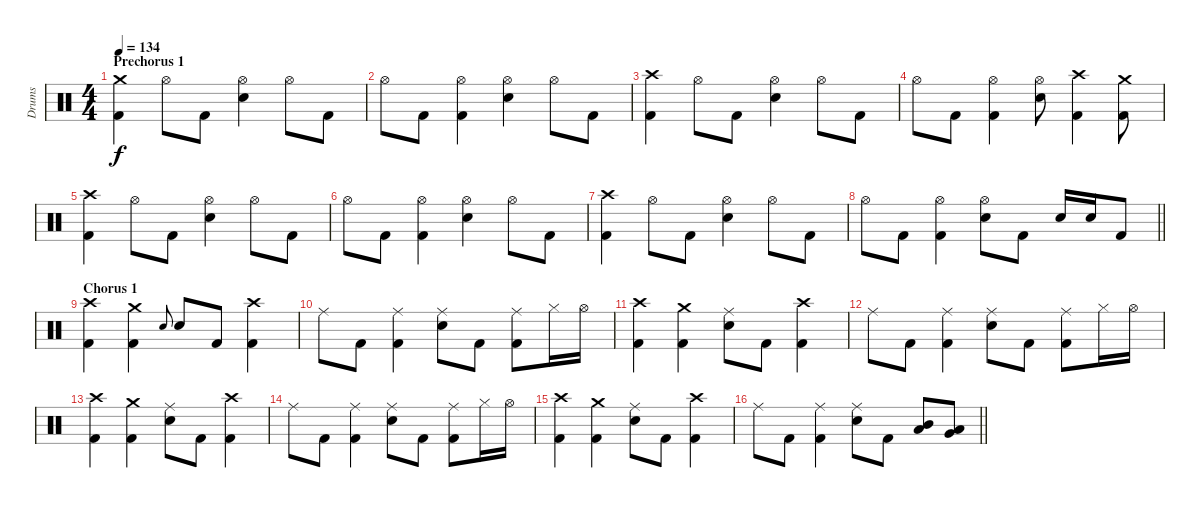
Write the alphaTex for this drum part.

\track ("Drums" "Drums") {instrument percussion}
\staff {score}
\articulation defaults
\ts (4 4)
\section ("" "Prechorus 1")
\tempo 134
\clef neutral
\ks c
("Crash medium (hit)" "Kick (hit) 2").4{dy f} "Hi-Hat (open)".8 "Kick (hit) 2".8 ("Hi-Hat (open)" "Snare (hit) 2").4 "Hi-Hat (open)".8 "Kick (hit) 2".8 |
"Hi-Hat (open)".8 "Kick (hit) 2".8 ("Hi-Hat (open)" "Kick (hit) 2").4 ("Hi-Hat (open)" "Snare (hit) 2").4 "Hi-Hat (open)".8 "Kick (hit) 2".8 |
("Crash high (hit)" "Kick (hit) 2").4 "Hi-Hat (open)".8 "Kick (hit) 2".8 ("Hi-Hat (open)" "Snare (hit) 2").4 "Hi-Hat (open)".8 "Kick (hit) 2".8 |
"Hi-Hat (open)".8 "Kick (hit) 2".8 ("Hi-Hat (open)" "Kick (hit) 2").4 ("Hi-Hat (open)" "Snare (hit) 2").8 ("Crash high (hit)" "Kick (hit) 2").4 ("Crash medium (hit)" "Kick (hit) 2").8 |
("Crash high (hit)" "Kick (hit) 2").4 "Hi-Hat (open)".8 "Kick (hit) 2".8 ("Hi-Hat (open)" "Snare (hit) 2").4 "Hi-Hat (open)".8 "Kick (hit) 2".8 |
"Hi-Hat (open)".8 "Kick (hit) 2".8 ("Hi-Hat (open)" "Kick (hit) 2").4 ("Hi-Hat (open)" "Snare (hit) 2").4 "Hi-Hat (open)".8 "Kick (hit) 2".8 |
("Crash high (hit)" "Kick (hit) 2").4 "Hi-Hat (open)".8 "Kick (hit) 2".8 ("Hi-Hat (open)" "Snare (hit) 2").4 "Hi-Hat (open)".8 "Kick (hit) 2".8 |
\barLineRight lightlight "Hi-Hat (open)".8 "Kick (hit) 2".8
("Hi-Hat (open)" "Kick (hit) 2").4 ("Hi-Hat (open)" "Snare (hit) 2").8 "Kick (hit) 2".8 "Snare (hit) 2".16 "Snare (hit) 2".16 "Kick (hit) 2".8 |
\section ("" "Chorus 1")
("Crash high (hit)" "Kick (hit) 2").4 ("Crash medium (hit)" "Kick (hit) 2").4 "Snare (hit) 2".8{gr onbeat} "Snare (hit) 2".8 "Kick (hit) 2".8 ("Crash high (hit)" "Kick (hit) 2").4 |
"Ride (middle)".8 "Kick (hit) 2".8 ("Ride (middle)" "Kick (hit) 2").4 ("Ride (middle)" "Snare (hit) 2").8 "Kick (hit) 2".8 ("Ride (middle)" "Kick (hit) 2").8 "Hi-Hat (closed)".16 "Hi-Hat (open)".16 |
("Crash high (hit)" "Kick (hit) 2").4 ("Crash medium (hit)" "Kick (hit) 2").4 ("Ride (middle)" "Snare (hit) 2").8 "Kick (hit) 2".8 ("Crash high (hit)" "Kick (hit) 2").4 |
"Ride (middle)".8 "Kick (hit) 2".8 ("Ride (middle)" "Kick (hit) 2").4 ("Ride (middle)" "Snare (hit) 2").8 "Kick (hit) 2".8 ("Ride (middle)" "Kick (hit) 2").8 "Hi-Hat (closed)".16 "Hi-Hat (open)".16 |
("Crash high (hit)" "Kick (hit) 2").4 ("Crash medium (hit)" "Kick (hit) 2").4 ("Ride (middle)" "Snare (hit) 2").8 "Kick (hit) 2".8 ("Crash high (hit)" "Kick (hit) 2").4 |
"Ride (middle)".8 "Kick (hit) 2".8 ("Ride (middle)" "Kick (hit) 2").4 ("Ride (middle)" "Snare (hit) 2").8 "Kick (hit) 2".8 ("Ride (middle)" "Kick (hit) 2").8 "Hi-Hat (closed)".16 "Hi-Hat (open)".16 |
("Crash high (hit)" "Kick (hit) 2").4 ("Crash medium (hit)" "Kick (hit) 2").4 ("Ride (middle)" "Snare (hit) 2").8 "Kick (hit) 2".8 ("Crash high (hit)" "Kick (hit) 2").4 |
\barLineRight lightlight "Ride (middle)".8 "Kick (hit) 2".8
("Ride (middle)" "Kick (hit) 2").4 ("Ride (middle)" "Snare (hit) 2").8 "Kick (hit) 2".8 ("Mid Tom (hit)" "Low Tom (hit)").8 ("Low Tom (hit)" "Very Low Tom (hit)").8
